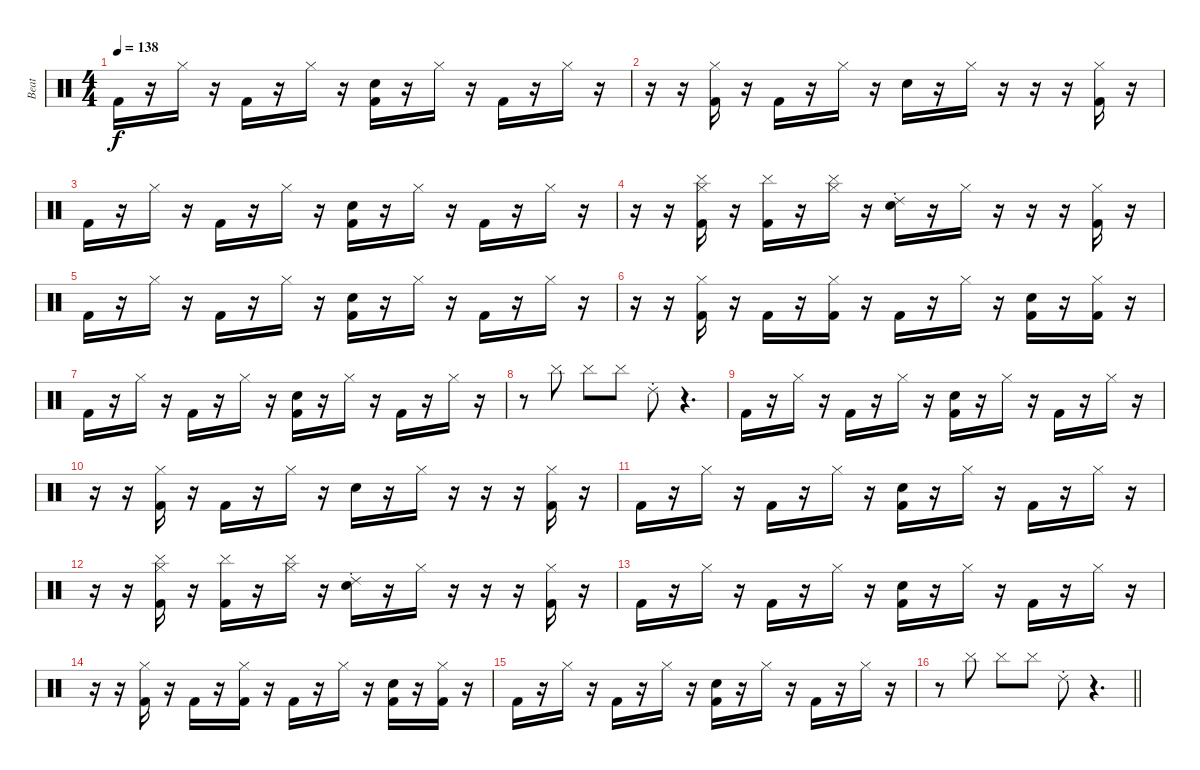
\track ("Beat" "Beat") {instrument percussion}
\staff {score}
\articulation defaults
\ts (4 4)
\tempo 138
\clef neutral
\ks c "Kick (hit) 2".16{dy f}
r.16 "Hi-Hat (closed)".16 r.16 "Kick (hit) 2".16 r.16 "Hi-Hat (closed)".16 r.16 ("Electric Snare (hit)" "Kick (hit) 2").16 r.16 "Hi-Hat (closed)".16 r.16 "Kick (hit) 2".16 r.16 "Hi-Hat (closed)".16 r.16 |
r.16 r.16 ("Hi-Hat (closed)" "Kick (hit) 2").16 r.16 "Kick (hit) 2".16 r.16 "Hi-Hat (closed)".16 r.16 "Electric Snare (hit)".16 r.16 "Hi-Hat (closed)".16 r.16 r.16 r.16 ("Hi-Hat (closed)" "Kick (hit) 2").16 r.16 |
"Kick (hit) 2".16 r.16 "Hi-Hat (closed)".16 r.16 "Kick (hit) 2".16 r.16 "Hi-Hat (closed)".16 r.16 ("Electric Snare (hit)" "Kick (hit) 2").16 r.16 "Hi-Hat (closed)".16 r.16 "Kick (hit) 2".16 r.16 "Hi-Hat (closed)".16 r.16 |
r.16 r.16 ("Cymbal (hit)" "Hi-Hat (closed)" "Kick (hit) 2").16 r.16 ("Cymbal (hit)" "Kick (hit) 2").16 r.16 ("Cymbal (hit)" "Hi-Hat (closed)").16 r.16 ("Ride (choke) 2" "Electric Snare (hit)").16 r.16 "Hi-Hat (closed)".16 r.16 r.16 r.16 ("Hi-Hat (closed)" "Kick (hit) 2").16 r.16 |
"Kick (hit) 2".16 r.16 "Hi-Hat (closed)".16 r.16 "Kick (hit) 2".16 r.16 "Hi-Hat (closed)".16 r.16 ("Electric Snare (hit)" "Kick (hit) 2").16 r.16 "Hi-Hat (closed)".16 r.16 "Kick (hit) 2".16 r.16 "Hi-Hat (closed)".16 r.16 |
r.16 r.16 ("Hi-Hat (closed)" "Kick (hit) 2").16 r.16 "Kick (hit) 2".16 r.16 ("Hi-Hat (closed)" "Kick (hit) 2").16 r.16 "Kick (hit) 2".16 r.16 "Hi-Hat (closed)".16 r.16 ("Electric Snare (hit)" "Kick (hit) 2").16 r.16 ("Hi-Hat (closed)" "Kick (hit) 2").16 r.16 |
"Kick (hit) 2".16 r.16 "Hi-Hat (closed)".16 r.16 "Kick (hit) 2".16 r.16 "Hi-Hat (closed)".16 r.16 ("Electric Snare (hit)" "Kick (hit) 2").16 r.16 "Hi-Hat (closed)".16 r.16 "Kick (hit) 2".16 r.16 "Hi-Hat (closed)".16 r.16 |
r.8 "Cymbal (hit)".8 "Cymbal (hit)".8 "Cymbal (hit)".8 "Ride (choke) 2".8 r.4{d} |
"Kick (hit) 2".16 r.16 "Hi-Hat (closed)".16 r.16 "Kick (hit) 2".16 r.16 "Hi-Hat (closed)".16 r.16 ("Electric Snare (hit)" "Kick (hit) 2").16 r.16 "Hi-Hat (closed)".16 r.16 "Kick (hit) 2".16 r.16 "Hi-Hat (closed)".16 r.16 |
r.16 r.16 ("Hi-Hat (closed)" "Kick (hit) 2").16 r.16 "Kick (hit) 2".16 r.16 "Hi-Hat (closed)".16 r.16 "Electric Snare (hit)".16 r.16 "Hi-Hat (closed)".16 r.16 r.16 r.16 ("Hi-Hat (closed)" "Kick (hit) 2").16 r.16 |
"Kick (hit) 2".16 r.16 "Hi-Hat (closed)".16 r.16 "Kick (hit) 2".16 r.16 "Hi-Hat (closed)".16 r.16 ("Electric Snare (hit)" "Kick (hit) 2").16 r.16 "Hi-Hat (closed)".16 r.16 "Kick (hit) 2".16 r.16 "Hi-Hat (closed)".16 r.16 |
r.16 r.16 ("Cymbal (hit)" "Hi-Hat (closed)" "Kick (hit) 2").16 r.16 ("Cymbal (hit)" "Kick (hit) 2").16 r.16 ("Cymbal (hit)" "Hi-Hat (closed)").16 r.16 ("Ride (choke) 2" "Electric Snare (hit)").16 r.16 "Hi-Hat (closed)".16 r.16 r.16 r.16 ("Hi-Hat (closed)" "Kick (hit) 2").16 r.16 |
"Kick (hit) 2".16 r.16 "Hi-Hat (closed)".16 r.16 "Kick (hit) 2".16 r.16 "Hi-Hat (closed)".16 r.16 ("Electric Snare (hit)" "Kick (hit) 2").16 r.16 "Hi-Hat (closed)".16 r.16 "Kick (hit) 2".16 r.16 "Hi-Hat (closed)".16 r.16 |
r.16 r.16 ("Hi-Hat (closed)" "Kick (hit) 2").16 r.16 "Kick (hit) 2".16 r.16 ("Hi-Hat (closed)" "Kick (hit) 2").16 r.16 "Kick (hit) 2".16 r.16 "Hi-Hat (closed)".16 r.16 ("Electric Snare (hit)" "Kick (hit) 2").16 r.16 ("Hi-Hat (closed)" "Kick (hit) 2").16 r.16 |
"Kick (hit) 2".16 r.16 "Hi-Hat (closed)".16 r.16 "Kick (hit) 2".16 r.16 "Hi-Hat (closed)".16 r.16 ("Electric Snare (hit)" "Kick (hit) 2").16 r.16 "Hi-Hat (closed)".16 r.16 "Kick (hit) 2".16 r.16 "Hi-Hat (closed)".16 r.16 |
\barLineRight lightlight
r.8 "Cymbal (hit)".8 "Cymbal (hit)".8 "Cymbal (hit)".8 "Ride (choke) 2".8 r.4{d}
